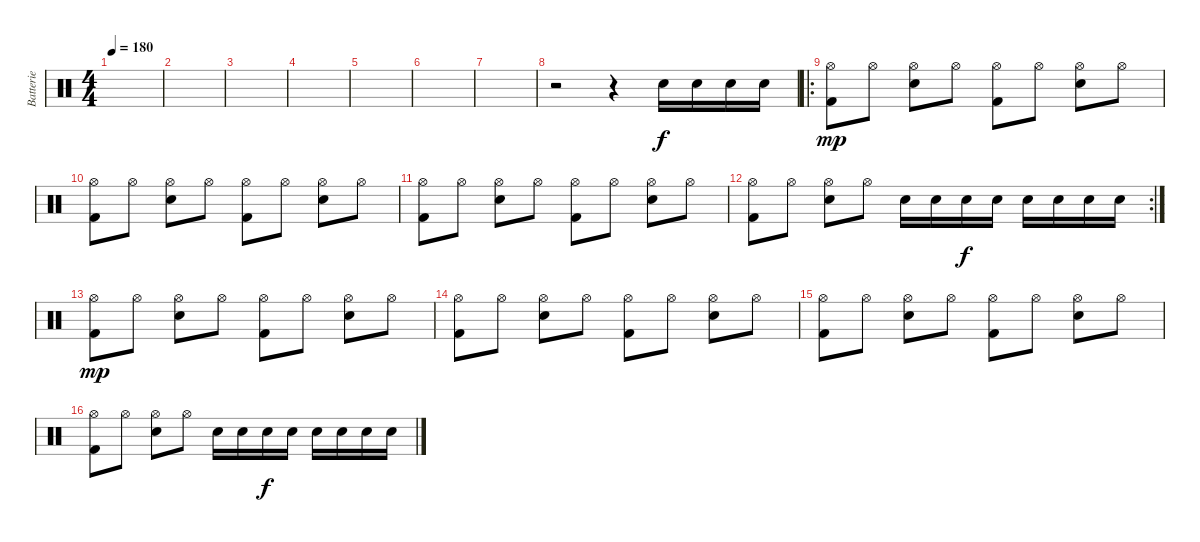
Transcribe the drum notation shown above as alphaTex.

\track ("Batterie" "Batterie") {instrument percussion}
\staff {score}
\articulation defaults
\ts (4 4)
\tempo 180
\clef neutral
\ks c
|
|
|
|
|
|
|
r.2 r.4 "Electric Snare (hit)".16 "Electric Snare (hit)".16 "Electric Snare (hit)".16 "Electric Snare (hit)".16 |
\ro
("Hi-Hat (open)" "Kick (hit) 2").8{dy mp} "Hi-Hat (open)".8 ("Hi-Hat (open)" "Electric Snare (hit)").8 "Hi-Hat (open)".8 ("Hi-Hat (open)" "Kick (hit) 2").8 "Hi-Hat (open)".8 ("Hi-Hat (open)" "Electric Snare (hit)").8 "Hi-Hat (open)".8 |
("Hi-Hat (open)" "Kick (hit) 2").8 "Hi-Hat (open)".8 ("Hi-Hat (open)" "Electric Snare (hit)").8 "Hi-Hat (open)".8 ("Hi-Hat (open)" "Kick (hit) 2").8 "Hi-Hat (open)".8 ("Hi-Hat (open)" "Electric Snare (hit)").8 "Hi-Hat (open)".8 |
("Hi-Hat (open)" "Kick (hit) 2").8 "Hi-Hat (open)".8 ("Hi-Hat (open)" "Electric Snare (hit)").8 "Hi-Hat (open)".8 ("Hi-Hat (open)" "Kick (hit) 2").8 "Hi-Hat (open)".8 ("Hi-Hat (open)" "Electric Snare (hit)").8 "Hi-Hat (open)".8 |
\rc 2
("Hi-Hat (open)" "Kick (hit) 2").8 "Hi-Hat (open)".8 ("Hi-Hat (open)" "Electric Snare (hit)").8 "Hi-Hat (open)".8 "Electric Snare (hit)".16 "Electric Snare (hit)".16 "Electric Snare (hit)".16{dy f} "Electric Snare (hit)".16 "Electric Snare (hit)".16 "Electric Snare (hit)".16 "Electric Snare (hit)".16 "Electric Snare (hit)".16 |
("Hi-Hat (open)" "Kick (hit) 2").8{dy mp} "Hi-Hat (open)".8 ("Hi-Hat (open)" "Electric Snare (hit)").8 "Hi-Hat (open)".8 ("Hi-Hat (open)" "Kick (hit) 2").8 "Hi-Hat (open)".8 ("Hi-Hat (open)" "Electric Snare (hit)").8 "Hi-Hat (open)".8 |
("Hi-Hat (open)" "Kick (hit) 2").8 "Hi-Hat (open)".8 ("Hi-Hat (open)" "Electric Snare (hit)").8 "Hi-Hat (open)".8 ("Hi-Hat (open)" "Kick (hit) 2").8 "Hi-Hat (open)".8 ("Hi-Hat (open)" "Electric Snare (hit)").8 "Hi-Hat (open)".8 |
("Hi-Hat (open)" "Kick (hit) 2").8 "Hi-Hat (open)".8 ("Hi-Hat (open)" "Electric Snare (hit)").8 "Hi-Hat (open)".8 ("Hi-Hat (open)" "Kick (hit) 2").8 "Hi-Hat (open)".8 ("Hi-Hat (open)" "Electric Snare (hit)").8 "Hi-Hat (open)".8 |
("Hi-Hat (open)" "Kick (hit) 2").8 "Hi-Hat (open)".8 ("Hi-Hat (open)" "Electric Snare (hit)").8 "Hi-Hat (open)".8 "Electric Snare (hit)".16 "Electric Snare (hit)".16 "Electric Snare (hit)".16{dy f} "Electric Snare (hit)".16 "Electric Snare (hit)".16 "Electric Snare (hit)".16 "Electric Snare (hit)".16 "Electric Snare (hit)".16
